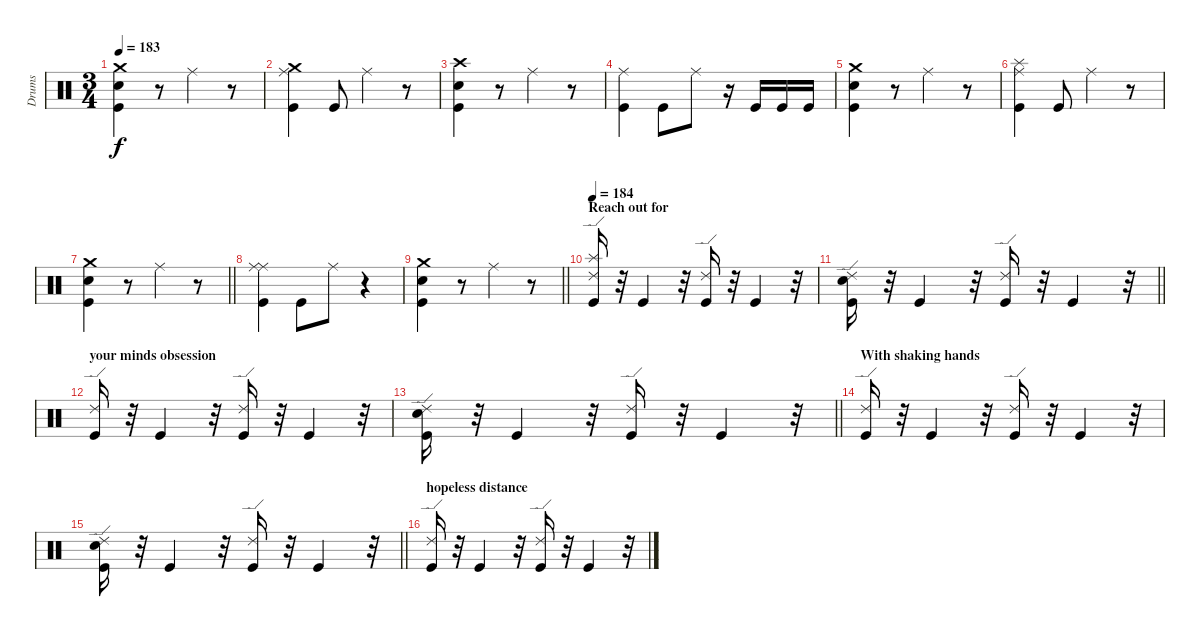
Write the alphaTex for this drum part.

\track ("Drums" "Drums") {instrument percussion}
\staff {score}
\articulation defaults
\ts (3 4)
\tempo 183
\clef neutral
\ks c
("Crash medium (hit)" "Snare (hit) 2" "Kick (hit)").4{dy f} r.8 "Ride (middle)".4 r.8 |
("Crash medium (hit)" "Ride (middle)" "Kick (hit)").4 "Kick (hit)".8 "Ride (middle)".4 r.8 |
("Crash high (hit)" "Snare (hit) 2" "Kick (hit)").4 r.8 "Ride (middle)".4 r.8 |
("Ride (middle)" "Kick (hit)").4 "Kick (hit)".8 "Ride (middle)".8 r.16 "Kick (hit)".16 "Kick (hit)".16 "Kick (hit)".16 |
("Crash medium (hit)" "Snare (hit) 2" "Kick (hit)").4 r.8 "Ride (middle)".4 r.8 |
("Splash (hit)" "Ride (middle)" "Kick (hit)").4 "Kick (hit)".8 "Ride (middle)".4 r.8 |
\barLineRight lightlight
("Crash medium (hit)" "Snare (hit) 2" "Kick (hit)").4 r.8 "Ride (middle)".4 r.8 |
("Ride (middle)" "Ride (middle)" "Kick (hit)").4 "Kick (hit)".8 "Ride (middle)".8 r.4 |
\barLineRight lightlight
("Crash medium (hit)" "Snare (hit) 2" "Kick (hit)").4 r.8 "Ride (middle)".4 r.8 |
\section ("" "Reach out for ")
\tempo 184
("Splash (hit)" "Ride (edge) 2" "Kick (hit)").16 r.32 "Kick (hit)".4 r.32 ("Ride (edge) 2" "Kick (hit)").16 r.32 "Kick (hit)".4 r.32 |
\barLineRight lightlight
("Ride (edge) 2" "Snare (hit) 2" "Kick (hit)").16 r.32 "Kick (hit)".4 r.32 ("Ride (edge) 2" "Kick (hit)").16 r.32 "Kick (hit)".4 r.32 |
\section ("" "your minds obsession")
("Ride (edge) 2" "Kick (hit)").16 r.32 "Kick (hit)".4 r.32 ("Ride (edge) 2" "Kick (hit)").16 r.32 "Kick (hit)".4 r.32 |
\barLineRight lightlight
("Ride (edge) 2" "Snare (hit) 2" "Kick (hit)").16 r.32 "Kick (hit)".4 r.32 ("Ride (edge) 2" "Kick (hit)").16 r.32 "Kick (hit)".4 r.32 |
\section ("" "With shaking hands ")
("Ride (edge) 2" "Kick (hit)").16 r.32 "Kick (hit)".4 r.32 ("Ride (edge) 2" "Kick (hit)").16 r.32 "Kick (hit)".4 r.32 |
\barLineRight lightlight
("Ride (edge) 2" "Snare (hit) 2" "Kick (hit)").16 r.32 "Kick (hit)".4 r.32 ("Ride (edge) 2" "Kick (hit)").16 r.32 "Kick (hit)".4 r.32 |
\section ("" "hopeless distance")
("Ride (edge) 2" "Kick (hit)").16 r.32 "Kick (hit)".4 r.32 ("Ride (edge) 2" "Kick (hit)").16 r.32 "Kick (hit)".4 r.32
